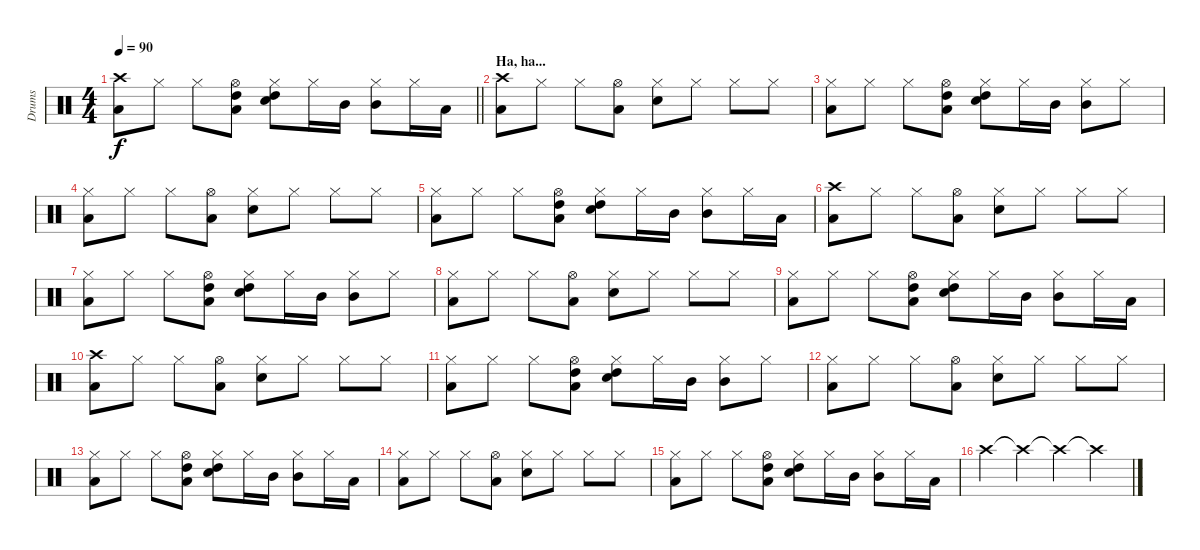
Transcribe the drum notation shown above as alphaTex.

\track ("Drums" "Drums") {instrument percussion}
\staff {score}
\articulation defaults
\ts (4 4)
\tempo 90
\clef neutral
\barLineRight lightlight
\ks c
("Crash high (hit)" "Low Tom (hit)").8{dy f} "Hi-Hat (closed)".8 "Hi-Hat (closed)".8 ("Hi-Hat (open)" "High Tom (hit)" "Low Tom (hit)").8 ("Hi-Hat (closed)" "High Tom (hit)" "Snare (hit) 2").8 "Hi-Hat (closed)".16 "Mid Tom (hit)".16 ("Hi-Hat (closed)" "Mid Tom (hit)").8 "Hi-Hat (closed)".16 "Low Tom (hit)".16 |
\section ("" "Ha, ha...")
("Crash high (hit)" "Low Tom (hit)").8 "Hi-Hat (closed)".8 "Hi-Hat (closed)".8 ("Hi-Hat (open)" "Low Tom (hit)").8 ("Hi-Hat (closed)" "Snare (hit) 2").8 "Hi-Hat (closed)".8 "Hi-Hat (closed)".8 "Hi-Hat (closed)".8 |
("Hi-Hat (closed)" "Low Tom (hit)").8 "Hi-Hat (closed)".8 "Hi-Hat (closed)".8 ("Hi-Hat (open)" "High Tom (hit)" "Low Tom (hit)").8 ("Hi-Hat (closed)" "High Tom (hit)" "Snare (hit) 2").8 "Hi-Hat (closed)".16 "Mid Tom (hit)".16 ("Hi-Hat (closed)" "Mid Tom (hit)").8 "Hi-Hat (closed)".8 |
("Hi-Hat (closed)" "Low Tom (hit)").8 "Hi-Hat (closed)".8 "Hi-Hat (closed)".8 ("Hi-Hat (open)" "Low Tom (hit)").8 ("Hi-Hat (closed)" "Snare (hit) 2").8 "Hi-Hat (closed)".8 "Hi-Hat (closed)".8 "Hi-Hat (closed)".8 |
("Hi-Hat (closed)" "Low Tom (hit)").8 "Hi-Hat (closed)".8 "Hi-Hat (closed)".8 ("Hi-Hat (open)" "High Tom (hit)" "Low Tom (hit)").8 ("Hi-Hat (closed)" "High Tom (hit)" "Snare (hit) 2").8 "Hi-Hat (closed)".16 "Mid Tom (hit)".16 ("Hi-Hat (closed)" "Mid Tom (hit)").8 "Hi-Hat (closed)".16 "Low Tom (hit)".16 |
("Crash high (hit)" "Low Tom (hit)").8 "Hi-Hat (closed)".8 "Hi-Hat (closed)".8 ("Hi-Hat (open)" "Low Tom (hit)").8 ("Hi-Hat (closed)" "Snare (hit) 2").8 "Hi-Hat (closed)".8 "Hi-Hat (closed)".8 "Hi-Hat (closed)".8 |
("Hi-Hat (closed)" "Low Tom (hit)").8 "Hi-Hat (closed)".8 "Hi-Hat (closed)".8 ("Hi-Hat (open)" "High Tom (hit)" "Low Tom (hit)").8 ("Hi-Hat (closed)" "High Tom (hit)" "Snare (hit) 2").8 "Hi-Hat (closed)".16 "Mid Tom (hit)".16 ("Hi-Hat (closed)" "Mid Tom (hit)").8 "Hi-Hat (closed)".8 |
("Hi-Hat (closed)" "Low Tom (hit)").8 "Hi-Hat (closed)".8 "Hi-Hat (closed)".8 ("Hi-Hat (open)" "Low Tom (hit)").8 ("Hi-Hat (closed)" "Snare (hit) 2").8 "Hi-Hat (closed)".8 "Hi-Hat (closed)".8 "Hi-Hat (closed)".8 |
("Hi-Hat (closed)" "Low Tom (hit)").8 "Hi-Hat (closed)".8 "Hi-Hat (closed)".8 ("Hi-Hat (open)" "High Tom (hit)" "Low Tom (hit)").8 ("Hi-Hat (closed)" "High Tom (hit)" "Snare (hit) 2").8 "Hi-Hat (closed)".16 "Mid Tom (hit)".16 ("Hi-Hat (closed)" "Mid Tom (hit)").8 "Hi-Hat (closed)".16 "Low Tom (hit)".16 |
("Crash high (hit)" "Low Tom (hit)").8 "Hi-Hat (closed)".8 "Hi-Hat (closed)".8 ("Hi-Hat (open)" "Low Tom (hit)").8 ("Hi-Hat (closed)" "Snare (hit) 2").8 "Hi-Hat (closed)".8 "Hi-Hat (closed)".8 "Hi-Hat (closed)".8 |
("Hi-Hat (closed)" "Low Tom (hit)").8 "Hi-Hat (closed)".8 "Hi-Hat (closed)".8 ("Hi-Hat (open)" "High Tom (hit)" "Low Tom (hit)").8 ("Hi-Hat (closed)" "High Tom (hit)" "Snare (hit) 2").8 "Hi-Hat (closed)".16 "Mid Tom (hit)".16 ("Hi-Hat (closed)" "Mid Tom (hit)").8 "Hi-Hat (closed)".8 |
("Hi-Hat (closed)" "Low Tom (hit)").8 "Hi-Hat (closed)".8 "Hi-Hat (closed)".8 ("Hi-Hat (open)" "Low Tom (hit)").8 ("Hi-Hat (closed)" "Snare (hit) 2").8 "Hi-Hat (closed)".8 "Hi-Hat (closed)".8 "Hi-Hat (closed)".8 |
("Hi-Hat (closed)" "Low Tom (hit)").8 "Hi-Hat (closed)".8 "Hi-Hat (closed)".8 ("Hi-Hat (open)" "High Tom (hit)" "Low Tom (hit)").8 ("Hi-Hat (closed)" "High Tom (hit)" "Snare (hit) 2").8 "Hi-Hat (closed)".16 "Mid Tom (hit)".16 ("Hi-Hat (closed)" "Mid Tom (hit)").8 "Hi-Hat (closed)".16 "Low Tom (hit)".16 |
("Hi-Hat (closed)" "Low Tom (hit)").8 "Hi-Hat (closed)".8 "Hi-Hat (closed)".8 ("Hi-Hat (open)" "Low Tom (hit)").8 ("Hi-Hat (closed)" "Snare (hit) 2").8 "Hi-Hat (closed)".8 "Hi-Hat (closed)".8 "Hi-Hat (closed)".8 |
("Hi-Hat (closed)" "Low Tom (hit)").8 "Hi-Hat (closed)".8 "Hi-Hat (closed)".8 ("Hi-Hat (open)" "High Tom (hit)" "Low Tom (hit)").8 ("Hi-Hat (closed)" "High Tom (hit)" "Snare (hit) 2").8 "Hi-Hat (closed)".16 "Mid Tom (hit)".16 ("Hi-Hat (closed)" "Mid Tom (hit)").8 "Hi-Hat (closed)".16 "Low Tom (hit)".16 |
"Crash high (hit)".4 "Crash high (hit)"{t}.4 "Crash high (hit)"{t}.4 "Crash high (hit)"{t}.4
